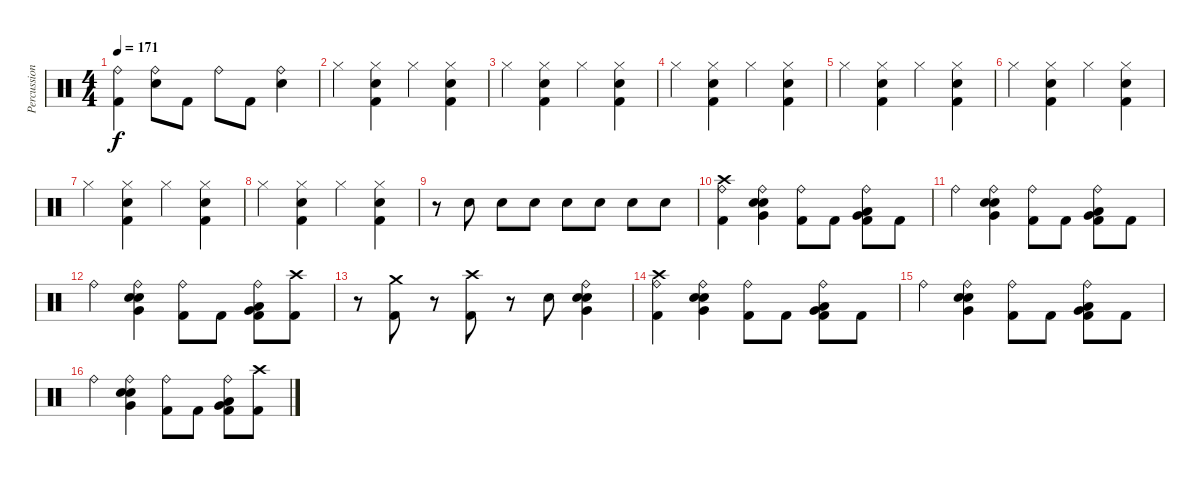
\track ("Percussion" "Percussion") {instrument percussion}
\staff {score}
\articulation defaults
\ts (4 4)
\tempo 171
\clef neutral
\ks c
("Ride (bell)" "Kick (hit) 2").4{dy f} ("Ride (bell)" "Metronome (bell)").8 "Kick (hit) 2".8 "Ride (bell)".8 "Kick (hit) 2".8 ("Ride (bell)" "Metronome (bell)").4 |
"Hi-Hat (closed)".4 ("Hi-Hat (closed)" "Metronome (bell)" "Kick (hit) 2").4 "Hi-Hat (closed)".4 ("Hi-Hat (closed)" "Metronome (bell)" "Kick (hit) 2").4 |
"Hi-Hat (closed)".4 ("Hi-Hat (closed)" "Metronome (bell)" "Kick (hit) 2").4 "Hi-Hat (closed)".4 ("Hi-Hat (closed)" "Metronome (bell)" "Kick (hit) 2").4 |
"Hi-Hat (closed)".4 ("Hi-Hat (closed)" "Metronome (bell)" "Kick (hit) 2").4 "Hi-Hat (closed)".4 ("Hi-Hat (closed)" "Metronome (bell)" "Kick (hit) 2").4 |
"Hi-Hat (closed)".4 ("Hi-Hat (closed)" "Metronome (bell)" "Kick (hit) 2").4 "Hi-Hat (closed)".4 ("Hi-Hat (closed)" "Metronome (bell)" "Kick (hit) 2").4 |
"Hi-Hat (closed)".4 ("Hi-Hat (closed)" "Metronome (bell)" "Kick (hit) 2").4 "Hi-Hat (closed)".4 ("Hi-Hat (closed)" "Metronome (bell)" "Kick (hit) 2").4 |
"Hi-Hat (closed)".4 ("Hi-Hat (closed)" "Metronome (bell)" "Kick (hit) 2").4 "Hi-Hat (closed)".4 ("Hi-Hat (closed)" "Metronome (bell)" "Kick (hit) 2").4 |
"Hi-Hat (closed)".4 ("Hi-Hat (closed)" "Metronome (bell)" "Kick (hit) 2").4 "Hi-Hat (closed)".4 ("Hi-Hat (closed)" "Metronome (bell)" "Kick (hit) 2").4 |
r.8 "Metronome (bell)".8 "Metronome (bell)".8 "Metronome (bell)".8 "Metronome (bell)".8 "Metronome (bell)".8 "Metronome (bell)".8 "Metronome (bell)".8 |
("Ride (bell)" "Crash high (hit)" "Kick (hit) 2").4 ("Ride (bell)" "Very Low Tom (hit)" "Metronome (bell)" "Electric Snare (hit)").4 ("Ride (bell)" "Kick (hit) 2").8 "Kick (hit) 2".8 ("Ride (bell)" "Very Low Tom (hit)" "Low Floor Tom (hit)" "Kick (hit) 2").8 "Kick (hit) 2".8 |
"Ride (bell)".4 ("Ride (bell)" "Very Low Tom (hit)" "Metronome (bell)" "Electric Snare (hit)").4 ("Ride (bell)" "Kick (hit) 2").8 "Kick (hit) 2".8 ("Ride (bell)" "Very Low Tom (hit)" "Low Floor Tom (hit)" "Kick (hit) 2").8 "Kick (hit) 2".8 |
"Ride (bell)".4 ("Ride (bell)" "Very Low Tom (hit)" "Metronome (bell)" "Electric Snare (hit)").4 ("Ride (bell)" "Kick (hit) 2").8 "Kick (hit) 2".8 ("Ride (bell)" "Very Low Tom (hit)" "Low Floor Tom (hit)" "Kick (hit) 2").8 ("Crash high (hit)" "Kick (hit) 2").8 |
r.8 ("Crash medium (hit)" "Kick (hit) 2").8 r.8 ("Crash high (hit)" "Kick (hit) 2").8 r.8 "Metronome (bell)".8 ("Ride (bell)" "Very Low Tom (hit)" "Electric Snare (hit)" "Metronome (bell)").4 |
("Ride (bell)" "Crash high (hit)" "Kick (hit) 2").4 ("Ride (bell)" "Very Low Tom (hit)" "Metronome (bell)" "Electric Snare (hit)").4 ("Ride (bell)" "Kick (hit) 2").8 "Kick (hit) 2".8 ("Ride (bell)" "Very Low Tom (hit)" "Low Floor Tom (hit)" "Kick (hit) 2").8 "Kick (hit) 2".8 |
"Ride (bell)".4 ("Ride (bell)" "Very Low Tom (hit)" "Metronome (bell)" "Electric Snare (hit)").4 ("Ride (bell)" "Kick (hit) 2").8 "Kick (hit) 2".8 ("Ride (bell)" "Very Low Tom (hit)" "Low Floor Tom (hit)" "Kick (hit) 2").8 "Kick (hit) 2".8 |
"Ride (bell)".4 ("Ride (bell)" "Very Low Tom (hit)" "Metronome (bell)" "Electric Snare (hit)").4 ("Ride (bell)" "Kick (hit) 2").8 "Kick (hit) 2".8 ("Ride (bell)" "Very Low Tom (hit)" "Low Floor Tom (hit)" "Kick (hit) 2").8 ("Crash high (hit)" "Kick (hit) 2").8
